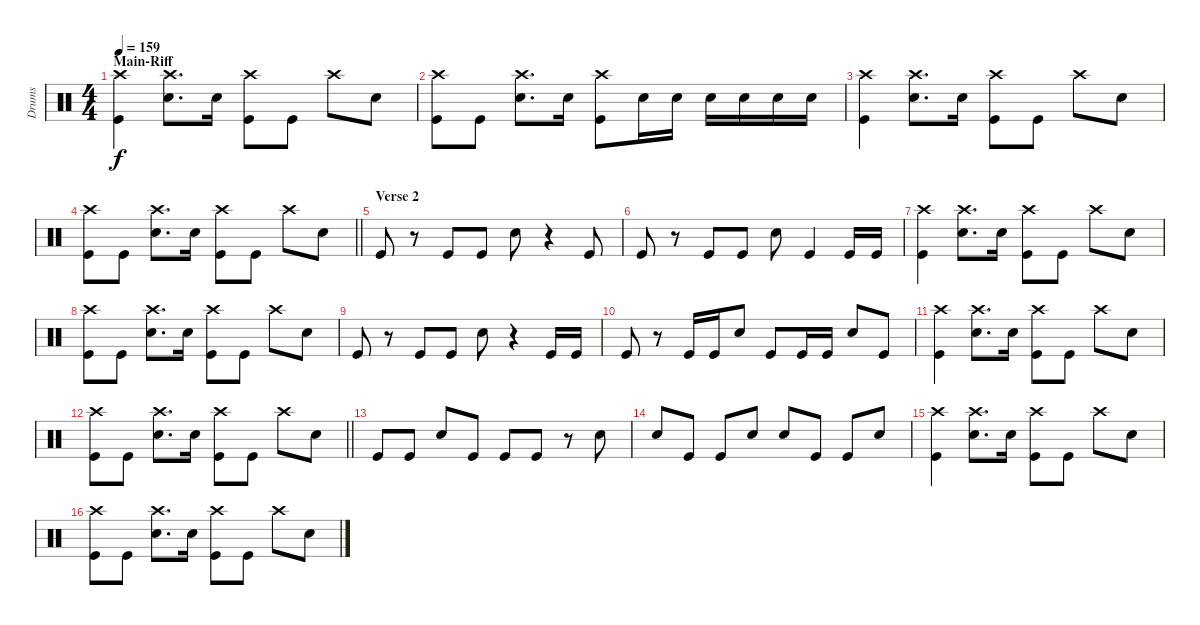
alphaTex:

\track ("Drums" "Drums") {instrument percussion}
\staff {score}
\articulation defaults
\ts (4 4)
\section ("" "Main-Riff")
\tempo 159
\clef neutral
\ks c
("Crash high (hit)" "Kick (hit)").4{dy f} ("Crash high (hit)" "Snare (hit) 2").8{d} "Snare (hit) 2".16 ("Crash high (hit)" "Kick (hit)").8 "Kick (hit)".8 "Crash high (hit)".8 "Snare (hit) 2".8 |
("Crash high (hit)" "Kick (hit)").8 "Kick (hit)".8 ("Crash high (hit)" "Snare (hit) 2").8{d} "Snare (hit) 2".16 ("Crash high (hit)" "Kick (hit)").8 "Snare (hit) 2".16 "Snare (hit) 2".16 "Snare (hit) 2".16 "Snare (hit) 2".16 "Snare (hit) 2".16 "Snare (hit) 2".16 |
("Crash high (hit)" "Kick (hit)").4 ("Crash high (hit)" "Snare (hit) 2").8{d} "Snare (hit) 2".16 ("Crash high (hit)" "Kick (hit)").8 "Kick (hit)".8 "Crash high (hit)".8 "Snare (hit) 2".8 |
\barLineRight lightlight
("Crash high (hit)" "Kick (hit)").8 "Kick (hit)".8 ("Crash high (hit)" "Snare (hit) 2").8{d} "Snare (hit) 2".16 ("Crash high (hit)" "Kick (hit)").8 "Kick (hit)".8 "Crash high (hit)".8 "Snare (hit) 2".8 |
\section ("" "Verse 2")
"Kick (hit)".8 r.8 "Kick (hit)".8 "Kick (hit)".8 "Snare (hit) 2".8 r.4 "Kick (hit)".8 |
"Kick (hit)".8 r.8 "Kick (hit)".8 "Kick (hit)".8 "Snare (hit) 2".8 "Kick (hit)".4 "Kick (hit)".16 "Kick (hit)".16 |
("Crash high (hit)" "Kick (hit)").4 ("Crash high (hit)" "Snare (hit) 2").8{d} "Snare (hit) 2".16 ("Crash high (hit)" "Kick (hit)").8 "Kick (hit)".8 "Crash high (hit)".8 "Snare (hit) 2".8 |
("Crash high (hit)" "Kick (hit)").8 "Kick (hit)".8 ("Crash high (hit)" "Snare (hit) 2").8{d} "Snare (hit) 2".16 ("Crash high (hit)" "Kick (hit)").8 "Kick (hit)".8 "Crash high (hit)".8 "Snare (hit) 2".8 |
"Kick (hit)".8 r.8 "Kick (hit)".8 "Kick (hit)".8 "Snare (hit) 2".8 r.4 "Kick (hit)".16 "Kick (hit)".16 |
"Kick (hit)".8 r.8 "Kick (hit)".16 "Kick (hit)".16 "Snare (hit) 2".8 "Kick (hit)".8 "Kick (hit)".16 "Kick (hit)".16 "Snare (hit) 2".8 "Kick (hit)".8 |
("Crash high (hit)" "Kick (hit)").4 ("Crash high (hit)" "Snare (hit) 2").8{d} "Snare (hit) 2".16 ("Crash high (hit)" "Kick (hit)").8 "Kick (hit)".8 "Crash high (hit)".8 "Snare (hit) 2".8 |
\barLineRight lightlight
("Crash high (hit)" "Kick (hit)").8 "Kick (hit)".8 ("Crash high (hit)" "Snare (hit) 2").8{d} "Snare (hit) 2".16 ("Crash high (hit)" "Kick (hit)").8 "Kick (hit)".8 "Crash high (hit)".8 "Snare (hit) 2".8 |
\section ("" "")
"Kick (hit)".8 "Kick (hit)".8 "Snare (hit) 2".8 "Kick (hit)".8 "Kick (hit)".8 "Kick (hit)".8 r.8 "Snare (hit) 2".8 |
"Snare (hit) 2".8 "Kick (hit)".8 "Kick (hit)".8 "Snare (hit) 2".8 "Snare (hit) 2".8 "Kick (hit)".8 "Kick (hit)".8 "Snare (hit) 2".8 |
("Crash high (hit)" "Kick (hit)").4 ("Crash high (hit)" "Snare (hit) 2").8{d} "Snare (hit) 2".16 ("Crash high (hit)" "Kick (hit)").8 "Kick (hit)".8 "Crash high (hit)".8 "Snare (hit) 2".8 |
("Crash high (hit)" "Kick (hit)").8 "Kick (hit)".8 ("Crash high (hit)" "Snare (hit) 2").8{d} "Snare (hit) 2".16 ("Crash high (hit)" "Kick (hit)").8 "Kick (hit)".8 "Crash high (hit)".8 "Snare (hit) 2".8
